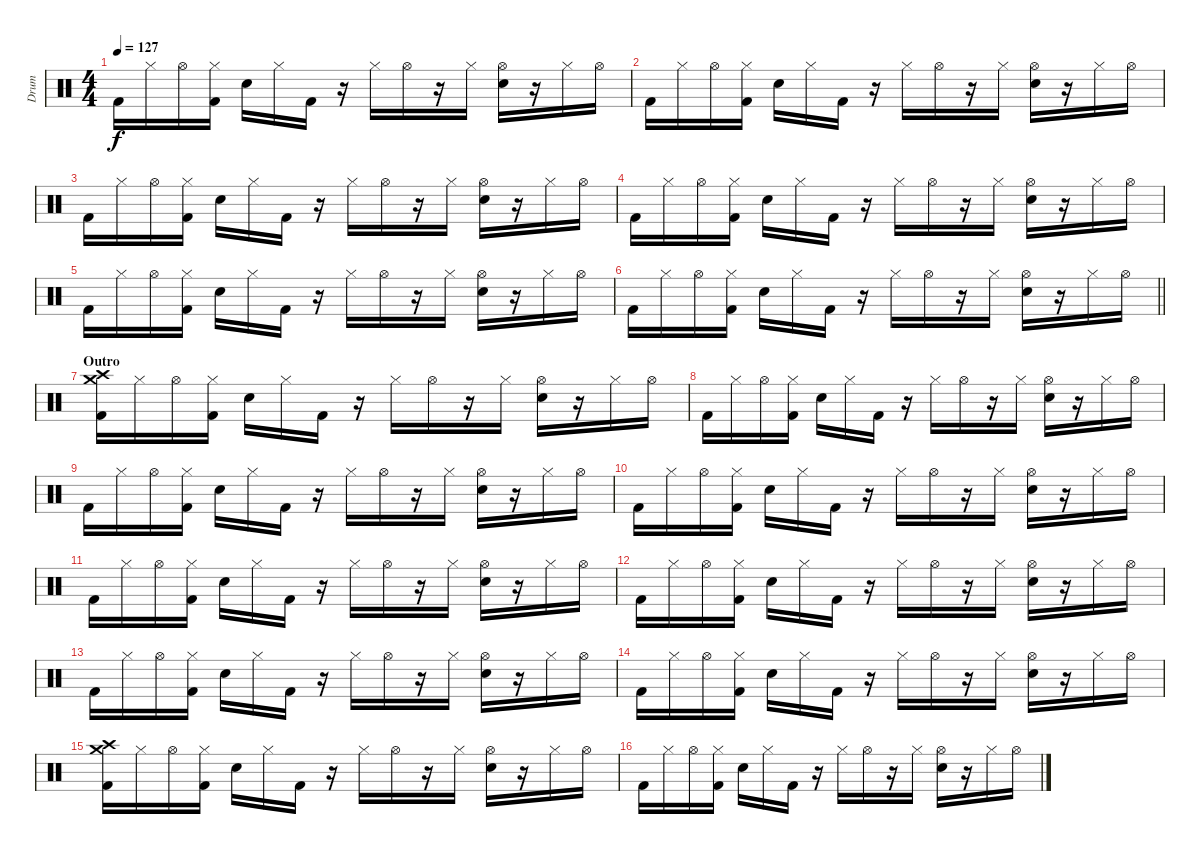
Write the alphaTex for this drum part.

\track ("Drum" "Drum") {instrument percussion}
\staff {score}
\articulation defaults
\ts (4 4)
\tempo 127
\clef neutral
\ks c "Kick (hit) 2".16{dy f} "Hi-Hat (closed)".16 "Hi-Hat (open)".16
("Hi-Hat (closed)" "Kick (hit) 2").16 "Electric Snare (hit)".16 "Hi-Hat (closed)".16 "Kick (hit) 2".16 r.16 "Hi-Hat (closed)".16 "Hi-Hat (open)".16 r.16 "Hi-Hat (closed)".16 ("Hi-Hat (open)" "Electric Snare (hit)").16 r.16 "Hi-Hat (closed)".16 "Hi-Hat (open)".16 |
"Kick (hit) 2".16 "Hi-Hat (closed)".16 "Hi-Hat (open)".16 ("Hi-Hat (closed)" "Kick (hit) 2").16 "Electric Snare (hit)".16 "Hi-Hat (closed)".16 "Kick (hit) 2".16 r.16 "Hi-Hat (closed)".16 "Hi-Hat (open)".16 r.16 "Hi-Hat (closed)".16 ("Hi-Hat (open)" "Electric Snare (hit)").16 r.16 "Hi-Hat (closed)".16 "Hi-Hat (open)".16 |
"Kick (hit) 2".16 "Hi-Hat (closed)".16 "Hi-Hat (open)".16 ("Hi-Hat (closed)" "Kick (hit) 2").16 "Electric Snare (hit)".16 "Hi-Hat (closed)".16 "Kick (hit) 2".16 r.16 "Hi-Hat (closed)".16 "Hi-Hat (open)".16 r.16 "Hi-Hat (closed)".16 ("Hi-Hat (open)" "Electric Snare (hit)").16 r.16 "Hi-Hat (closed)".16 "Hi-Hat (open)".16 |
"Kick (hit) 2".16 "Hi-Hat (closed)".16 "Hi-Hat (open)".16 ("Hi-Hat (closed)" "Kick (hit) 2").16 "Electric Snare (hit)".16 "Hi-Hat (closed)".16 "Kick (hit) 2".16 r.16 "Hi-Hat (closed)".16 "Hi-Hat (open)".16 r.16 "Hi-Hat (closed)".16 ("Hi-Hat (open)" "Electric Snare (hit)").16 r.16 "Hi-Hat (closed)".16 "Hi-Hat (open)".16 |
"Kick (hit) 2".16 "Hi-Hat (closed)".16 "Hi-Hat (open)".16 ("Hi-Hat (closed)" "Kick (hit) 2").16 "Electric Snare (hit)".16 "Hi-Hat (closed)".16 "Kick (hit) 2".16 r.16 "Hi-Hat (closed)".16 "Hi-Hat (open)".16 r.16 "Hi-Hat (closed)".16 ("Hi-Hat (open)" "Electric Snare (hit)").16 r.16 "Hi-Hat (closed)".16 "Hi-Hat (open)".16 |
\barLineRight lightlight "Kick (hit) 2".16 "Hi-Hat (closed)".16 "Hi-Hat (open)".16
("Hi-Hat (closed)" "Kick (hit) 2").16 "Electric Snare (hit)".16 "Hi-Hat (closed)".16 "Kick (hit) 2".16 r.16 "Hi-Hat (closed)".16 "Hi-Hat (open)".16 r.16 "Hi-Hat (closed)".16 ("Hi-Hat (open)" "Electric Snare (hit)").16 r.16 "Hi-Hat (closed)".16 "Hi-Hat (open)".16 |
\section ("" "Outro")
("Crash high (hit)" "Crash medium (hit)" "Kick (hit) 2").16 "Hi-Hat (closed)".16 "Hi-Hat (open)".16 ("Hi-Hat (closed)" "Kick (hit) 2").16 "Electric Snare (hit)".16 "Hi-Hat (closed)".16 "Kick (hit) 2".16 r.16 "Hi-Hat (closed)".16 "Hi-Hat (open)".16 r.16 "Hi-Hat (closed)".16 ("Hi-Hat (open)" "Electric Snare (hit)").16 r.16 "Hi-Hat (closed)".16 "Hi-Hat (open)".16 |
"Kick (hit) 2".16 "Hi-Hat (closed)".16 "Hi-Hat (open)".16 ("Hi-Hat (closed)" "Kick (hit) 2").16 "Electric Snare (hit)".16 "Hi-Hat (closed)".16 "Kick (hit) 2".16 r.16 "Hi-Hat (closed)".16 "Hi-Hat (open)".16 r.16 "Hi-Hat (closed)".16 ("Hi-Hat (open)" "Electric Snare (hit)").16 r.16 "Hi-Hat (closed)".16 "Hi-Hat (open)".16 |
"Kick (hit) 2".16 "Hi-Hat (closed)".16 "Hi-Hat (open)".16 ("Hi-Hat (closed)" "Kick (hit) 2").16 "Electric Snare (hit)".16 "Hi-Hat (closed)".16 "Kick (hit) 2".16 r.16 "Hi-Hat (closed)".16 "Hi-Hat (open)".16 r.16 "Hi-Hat (closed)".16 ("Hi-Hat (open)" "Electric Snare (hit)").16 r.16 "Hi-Hat (closed)".16 "Hi-Hat (open)".16 |
"Kick (hit) 2".16 "Hi-Hat (closed)".16 "Hi-Hat (open)".16 ("Hi-Hat (closed)" "Kick (hit) 2").16 "Electric Snare (hit)".16 "Hi-Hat (closed)".16 "Kick (hit) 2".16 r.16 "Hi-Hat (closed)".16 "Hi-Hat (open)".16 r.16 "Hi-Hat (closed)".16 ("Hi-Hat (open)" "Electric Snare (hit)").16 r.16 "Hi-Hat (closed)".16 "Hi-Hat (open)".16 |
"Kick (hit) 2".16 "Hi-Hat (closed)".16 "Hi-Hat (open)".16 ("Hi-Hat (closed)" "Kick (hit) 2").16 "Electric Snare (hit)".16 "Hi-Hat (closed)".16 "Kick (hit) 2".16 r.16 "Hi-Hat (closed)".16 "Hi-Hat (open)".16 r.16 "Hi-Hat (closed)".16 ("Hi-Hat (open)" "Electric Snare (hit)").16 r.16 "Hi-Hat (closed)".16 "Hi-Hat (open)".16 |
"Kick (hit) 2".16 "Hi-Hat (closed)".16 "Hi-Hat (open)".16 ("Hi-Hat (closed)" "Kick (hit) 2").16 "Electric Snare (hit)".16 "Hi-Hat (closed)".16 "Kick (hit) 2".16 r.16 "Hi-Hat (closed)".16 "Hi-Hat (open)".16 r.16 "Hi-Hat (closed)".16 ("Hi-Hat (open)" "Electric Snare (hit)").16 r.16 "Hi-Hat (closed)".16 "Hi-Hat (open)".16 |
"Kick (hit) 2".16 "Hi-Hat (closed)".16 "Hi-Hat (open)".16 ("Hi-Hat (closed)" "Kick (hit) 2").16 "Electric Snare (hit)".16 "Hi-Hat (closed)".16 "Kick (hit) 2".16 r.16 "Hi-Hat (closed)".16 "Hi-Hat (open)".16 r.16 "Hi-Hat (closed)".16 ("Hi-Hat (open)" "Electric Snare (hit)").16 r.16 "Hi-Hat (closed)".16 "Hi-Hat (open)".16 |
"Kick (hit) 2".16 "Hi-Hat (closed)".16 "Hi-Hat (open)".16 ("Hi-Hat (closed)" "Kick (hit) 2").16 "Electric Snare (hit)".16 "Hi-Hat (closed)".16 "Kick (hit) 2".16 r.16 "Hi-Hat (closed)".16 "Hi-Hat (open)".16 r.16 "Hi-Hat (closed)".16 ("Hi-Hat (open)" "Electric Snare (hit)").16 r.16 "Hi-Hat (closed)".16 "Hi-Hat (open)".16 |
("Crash high (hit)" "Crash medium (hit)" "Kick (hit) 2").16 "Hi-Hat (closed)".16 "Hi-Hat (open)".16 ("Hi-Hat (closed)" "Kick (hit) 2").16 "Electric Snare (hit)".16 "Hi-Hat (closed)".16 "Kick (hit) 2".16 r.16 "Hi-Hat (closed)".16 "Hi-Hat (open)".16 r.16 "Hi-Hat (closed)".16 ("Hi-Hat (open)" "Electric Snare (hit)").16 r.16 "Hi-Hat (closed)".16 "Hi-Hat (open)".16 |
"Kick (hit) 2".16 "Hi-Hat (closed)".16 "Hi-Hat (open)".16 ("Hi-Hat (closed)" "Kick (hit) 2").16 "Electric Snare (hit)".16 "Hi-Hat (closed)".16 "Kick (hit) 2".16 r.16 "Hi-Hat (closed)".16 "Hi-Hat (open)".16 r.16 "Hi-Hat (closed)".16 ("Hi-Hat (open)" "Electric Snare (hit)").16 r.16 "Hi-Hat (closed)".16 "Hi-Hat (open)".16
